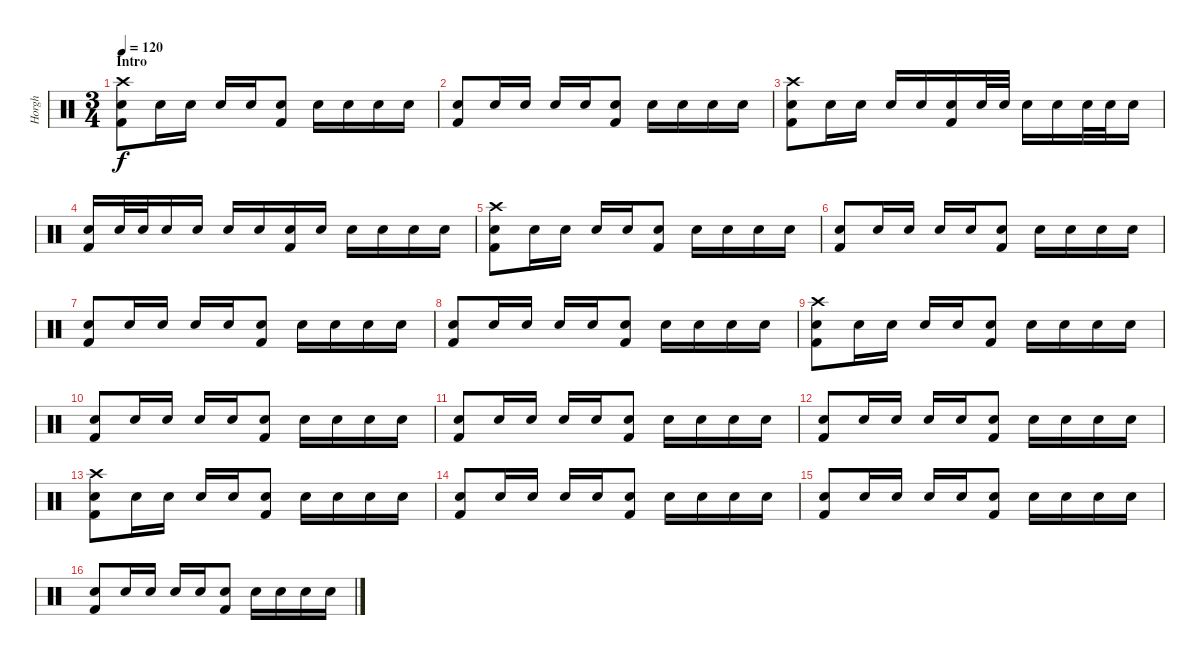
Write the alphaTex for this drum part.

\track ("Horgh" "Horgh") {instrument percussion}
\staff {score}
\articulation defaults
\ts (3 4)
\section ("" "Intro")
\tempo 120
\clef neutral
\ks c
("Crash high (hit)" "Snare (hit) 2" "Kick (hit) 2").8{dy f} "Snare (hit) 2".16 "Snare (hit) 2".16 "Snare (hit) 2".16 "Snare (hit) 2".16 ("Snare (hit) 2" "Kick (hit) 2").8 "Snare (hit) 2".16 "Snare (hit) 2".16 "Snare (hit) 2".16 "Snare (hit) 2".16 |
("Snare (hit) 2" "Kick (hit) 2").8 "Snare (hit) 2".16 "Snare (hit) 2".16 "Snare (hit) 2".16 "Snare (hit) 2".16 ("Snare (hit) 2" "Kick (hit) 2").8 "Snare (hit) 2".16 "Snare (hit) 2".16 "Snare (hit) 2".16 "Snare (hit) 2".16 |
("Crash high (hit)" "Snare (hit) 2" "Kick (hit) 2").8 "Snare (hit) 2".16 "Snare (hit) 2".16 "Snare (hit) 2".16 "Snare (hit) 2".16 ("Snare (hit) 2" "Kick (hit) 2").16 "Snare (hit) 2".32 "Snare (hit) 2".32 "Snare (hit) 2".16 "Snare (hit) 2".16 "Snare (hit) 2".32 "Snare (hit) 2".32 "Snare (hit) 2".16 |
("Snare (hit) 2" "Kick (hit) 2").16 "Snare (hit) 2".32 "Snare (hit) 2".32 "Snare (hit) 2".16 "Snare (hit) 2".16 "Snare (hit) 2".16 "Snare (hit) 2".16 ("Snare (hit) 2" "Kick (hit) 2").16 "Snare (hit) 2".16 "Snare (hit) 2".16 "Snare (hit) 2".16 "Snare (hit) 2".16 "Snare (hit) 2".16 |
("Crash high (hit)" "Snare (hit) 2" "Kick (hit) 2").8 "Snare (hit) 2".16 "Snare (hit) 2".16 "Snare (hit) 2".16 "Snare (hit) 2".16 ("Snare (hit) 2" "Kick (hit) 2").8 "Snare (hit) 2".16 "Snare (hit) 2".16 "Snare (hit) 2".16 "Snare (hit) 2".16 |
("Snare (hit) 2" "Kick (hit) 2").8 "Snare (hit) 2".16 "Snare (hit) 2".16 "Snare (hit) 2".16 "Snare (hit) 2".16 ("Snare (hit) 2" "Kick (hit) 2").8 "Snare (hit) 2".16 "Snare (hit) 2".16 "Snare (hit) 2".16 "Snare (hit) 2".16 |
("Snare (hit) 2" "Kick (hit) 2").8 "Snare (hit) 2".16 "Snare (hit) 2".16 "Snare (hit) 2".16 "Snare (hit) 2".16 ("Snare (hit) 2" "Kick (hit) 2").8 "Snare (hit) 2".16 "Snare (hit) 2".16 "Snare (hit) 2".16 "Snare (hit) 2".16 |
("Snare (hit) 2" "Kick (hit) 2").8 "Snare (hit) 2".16 "Snare (hit) 2".16 "Snare (hit) 2".16 "Snare (hit) 2".16 ("Snare (hit) 2" "Kick (hit) 2").8 "Snare (hit) 2".16 "Snare (hit) 2".16 "Snare (hit) 2".16 "Snare (hit) 2".16 |
("Crash high (hit)" "Snare (hit) 2" "Kick (hit) 2").8 "Snare (hit) 2".16 "Snare (hit) 2".16 "Snare (hit) 2".16 "Snare (hit) 2".16 ("Snare (hit) 2" "Kick (hit) 2").8 "Snare (hit) 2".16 "Snare (hit) 2".16 "Snare (hit) 2".16 "Snare (hit) 2".16 |
("Snare (hit) 2" "Kick (hit) 2").8 "Snare (hit) 2".16 "Snare (hit) 2".16 "Snare (hit) 2".16 "Snare (hit) 2".16 ("Snare (hit) 2" "Kick (hit) 2").8 "Snare (hit) 2".16 "Snare (hit) 2".16 "Snare (hit) 2".16 "Snare (hit) 2".16 |
("Snare (hit) 2" "Kick (hit) 2").8 "Snare (hit) 2".16 "Snare (hit) 2".16 "Snare (hit) 2".16 "Snare (hit) 2".16 ("Snare (hit) 2" "Kick (hit) 2").8 "Snare (hit) 2".16 "Snare (hit) 2".16 "Snare (hit) 2".16 "Snare (hit) 2".16 |
("Snare (hit) 2" "Kick (hit) 2").8 "Snare (hit) 2".16 "Snare (hit) 2".16 "Snare (hit) 2".16 "Snare (hit) 2".16 ("Snare (hit) 2" "Kick (hit) 2").8 "Snare (hit) 2".16 "Snare (hit) 2".16 "Snare (hit) 2".16 "Snare (hit) 2".16 |
("Crash high (hit)" "Snare (hit) 2" "Kick (hit) 2").8 "Snare (hit) 2".16 "Snare (hit) 2".16 "Snare (hit) 2".16 "Snare (hit) 2".16 ("Snare (hit) 2" "Kick (hit) 2").8 "Snare (hit) 2".16 "Snare (hit) 2".16 "Snare (hit) 2".16 "Snare (hit) 2".16 |
("Snare (hit) 2" "Kick (hit) 2").8 "Snare (hit) 2".16 "Snare (hit) 2".16 "Snare (hit) 2".16 "Snare (hit) 2".16 ("Snare (hit) 2" "Kick (hit) 2").8 "Snare (hit) 2".16 "Snare (hit) 2".16 "Snare (hit) 2".16 "Snare (hit) 2".16 |
("Snare (hit) 2" "Kick (hit) 2").8 "Snare (hit) 2".16 "Snare (hit) 2".16 "Snare (hit) 2".16 "Snare (hit) 2".16 ("Snare (hit) 2" "Kick (hit) 2").8 "Snare (hit) 2".16 "Snare (hit) 2".16 "Snare (hit) 2".16 "Snare (hit) 2".16 |
("Snare (hit) 2" "Kick (hit) 2").8 "Snare (hit) 2".16 "Snare (hit) 2".16 "Snare (hit) 2".16 "Snare (hit) 2".16 ("Snare (hit) 2" "Kick (hit) 2").8 "Snare (hit) 2".16 "Snare (hit) 2".16 "Snare (hit) 2".16 "Snare (hit) 2".16
